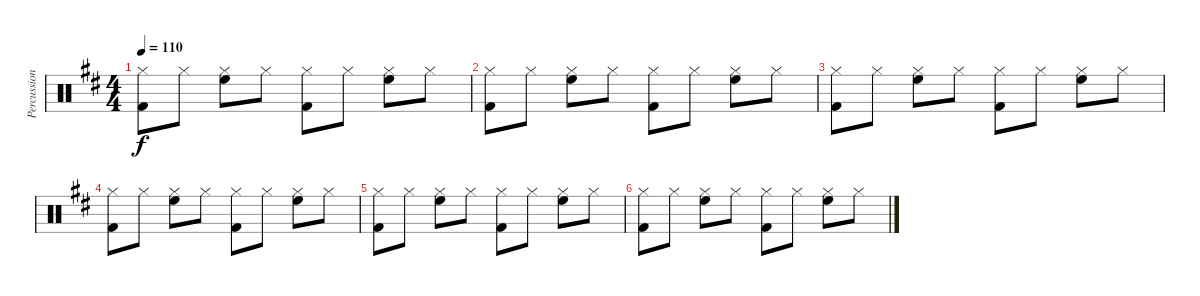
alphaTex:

\track ("Percussions" "Percussion") {instrument percussion}
\staff {score}
\articulation defaults
\ts (4 4)
\tempo 110
\clef neutral
\ks d
("Hi-Hat (closed)" "Kick (hit) 2").8{dy f} "Hi-Hat (closed)".8 ("Hi-Hat (closed)" "High Floor Tom (hit)").8 "Hi-Hat (closed)".8 ("Hi-Hat (closed)" "Kick (hit) 2").8 "Hi-Hat (closed)".8 ("Hi-Hat (closed)" "High Floor Tom (hit)").8 "Hi-Hat (closed)".8 |
("Hi-Hat (closed)" "Kick (hit) 2").8 "Hi-Hat (closed)".8 ("Hi-Hat (closed)" "High Floor Tom (hit)").8 "Hi-Hat (closed)".8 ("Hi-Hat (closed)" "Kick (hit) 2").8 "Hi-Hat (closed)".8 ("Hi-Hat (closed)" "High Floor Tom (hit)").8 "Hi-Hat (closed)".8 |
("Hi-Hat (closed)" "Kick (hit) 2").8 "Hi-Hat (closed)".8 ("Hi-Hat (closed)" "High Floor Tom (hit)").8 "Hi-Hat (closed)".8 ("Hi-Hat (closed)" "Kick (hit) 2").8 "Hi-Hat (closed)".8 ("Hi-Hat (closed)" "High Floor Tom (hit)").8 "Hi-Hat (closed)".8 |
("Hi-Hat (closed)" "Kick (hit) 2").8 "Hi-Hat (closed)".8 ("Hi-Hat (closed)" "High Floor Tom (hit)").8 "Hi-Hat (closed)".8 ("Hi-Hat (closed)" "Kick (hit) 2").8 "Hi-Hat (closed)".8 ("Hi-Hat (closed)" "High Floor Tom (hit)").8 "Hi-Hat (closed)".8 |
("Hi-Hat (closed)" "Kick (hit) 2").8 "Hi-Hat (closed)".8 ("Hi-Hat (closed)" "High Floor Tom (hit)").8 "Hi-Hat (closed)".8 ("Hi-Hat (closed)" "Kick (hit) 2").8 "Hi-Hat (closed)".8 ("Hi-Hat (closed)" "High Floor Tom (hit)").8 "Hi-Hat (closed)".8 |
("Hi-Hat (closed)" "Kick (hit) 2").8 "Hi-Hat (closed)".8 ("Hi-Hat (closed)" "High Floor Tom (hit)").8 "Hi-Hat (closed)".8 ("Hi-Hat (closed)" "Kick (hit) 2").8 "Hi-Hat (closed)".8 ("Hi-Hat (closed)" "High Floor Tom (hit)").8 "Hi-Hat (closed)".8
